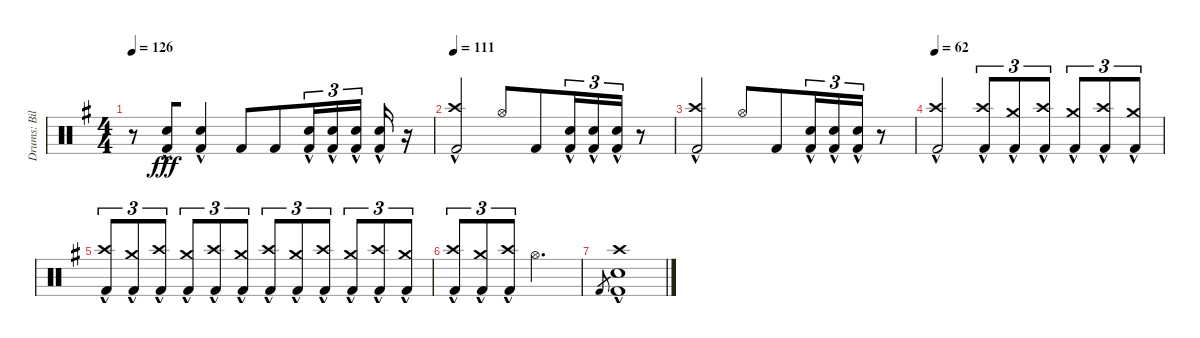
\track ("Drums: Bill" "Drums: Bil") {instrument percussion}
\staff {score}
\articulation defaults
\ts (4 4)
\tempo 126
\clef neutral
\ks g
r.8{dy fff beam Up beam merge} ("Electric Snare (hit)"{hac} "Kick (hit) 2"{hac}).8{beam Up beam merge} ("Electric Snare (hit)"{hac} "Kick (hit) 2"{hac}).4{beam Up} "Kick (hit) 2".8 "Kick (hit) 2".8{beam merge} ("Electric Snare (hit)"{hac} "Kick (hit) 2"{hac}).16{tu (3 2) beam Up beam merge} ("Electric Snare (hit)"{hac} "Kick (hit) 2"{hac}).16{tu (3 2) beam Up beam merge} ("Electric Snare (hit)"{hac} "Kick (hit) 2"{hac}).16{tu (3 2) beam Up beam splitsecondary} ("Electric Snare (hit)"{hac} "Kick (hit) 2"{hac}).16{beam Up} r.16 |
\tempo 111
("Crash high (hit)"{hac} "Kick (hit) 2"{hac}).2{beam Up} "Hi-Hat (open)".8{beam Up} "Kick (hit) 2".8{beam merge} ("Electric Snare (hit)"{hac} "Kick (hit) 2"{hac}).16{tu (3 2) beam Up beam merge} ("Electric Snare (hit)"{hac} "Kick (hit) 2"{hac}).16{tu (3 2) beam Up beam merge} ("Electric Snare (hit)"{hac} "Kick (hit) 2"{hac}).16{tu (3 2) beam Up} r.8 |
("Crash high (hit)"{hac} "Kick (hit) 2"{hac}).2{beam Up} "Hi-Hat (open)".8{beam Up} "Kick (hit) 2".8{beam merge} ("Electric Snare (hit)"{hac} "Kick (hit) 2"{hac}).16{tu (3 2) beam Up beam merge} ("Electric Snare (hit)"{hac} "Kick (hit) 2"{hac}).16{tu (3 2) beam Up beam merge} ("Electric Snare (hit)"{hac} "Kick (hit) 2"{hac}).16{tu (3 2) beam Up} r.8 |
\tempo 62
("Crash high (hit)"{hac} "Kick (hit) 2"{hac}).2{beam Up} ("Crash high (hit)"{hac} "Kick (hit) 2"{hac}).8{tu (3 2) beam Up} ("Crash medium (hit)"{hac} "Kick (hit) 2"{hac}).8{tu (3 2) beam Up} ("Crash high (hit)"{hac} "Kick (hit) 2"{hac}).8{tu (3 2) beam Up} ("Crash medium (hit)"{hac} "Kick (hit) 2"{hac}).8{tu (3 2) beam Up} ("Crash high (hit)"{hac} "Kick (hit) 2"{hac}).8{tu (3 2) beam Up} ("Crash medium (hit)"{hac} "Kick (hit) 2"{hac}).8{tu (3 2) beam Up} |
("Crash high (hit)"{hac} "Kick (hit) 2"{hac}).8{tu (3 2) beam Up} ("Crash medium (hit)"{hac} "Kick (hit) 2"{hac}).8{tu (3 2) beam Up} ("Crash high (hit)"{hac} "Kick (hit) 2"{hac}).8{tu (3 2) beam Up} ("Crash medium (hit)"{hac} "Kick (hit) 2"{hac}).8{tu (3 2) beam Up} ("Crash high (hit)"{hac} "Kick (hit) 2"{hac}).8{tu (3 2) beam Up} ("Crash medium (hit)"{hac} "Kick (hit) 2"{hac}).8{tu (3 2) beam Up} ("Crash high (hit)"{hac} "Kick (hit) 2"{hac}).8{tu (3 2) beam Up} ("Crash medium (hit)"{hac} "Kick (hit) 2"{hac}).8{tu (3 2) beam Up} ("Crash high (hit)"{hac} "Kick (hit) 2"{hac}).8{tu (3 2) beam Up} ("Crash medium (hit)"{hac} "Kick (hit) 2"{hac}).8{tu (3 2) beam Up} ("Crash high (hit)"{hac} "Kick (hit) 2"{hac}).8{tu (3 2) beam Up} ("Crash medium (hit)"{hac} "Kick (hit) 2"{hac}).8{tu (3 2) beam Up} |
("Crash high (hit)"{hac} "Kick (hit) 2"{hac}).8{tu (3 2) beam Up} ("Crash medium (hit)"{hac} "Kick (hit) 2"{hac}).8{tu (3 2) beam Up} ("Crash high (hit)"{hac} "Kick (hit) 2"{hac}).8{tu (3 2) beam Up} "Hi-Hat (open)".2{d} |
"Kick (hit) 2".8{gr} ("Crash high (hit)"{hac} "Electric Snare (hit)" "Kick (hit) 2"{hac}).1{beam Up}
